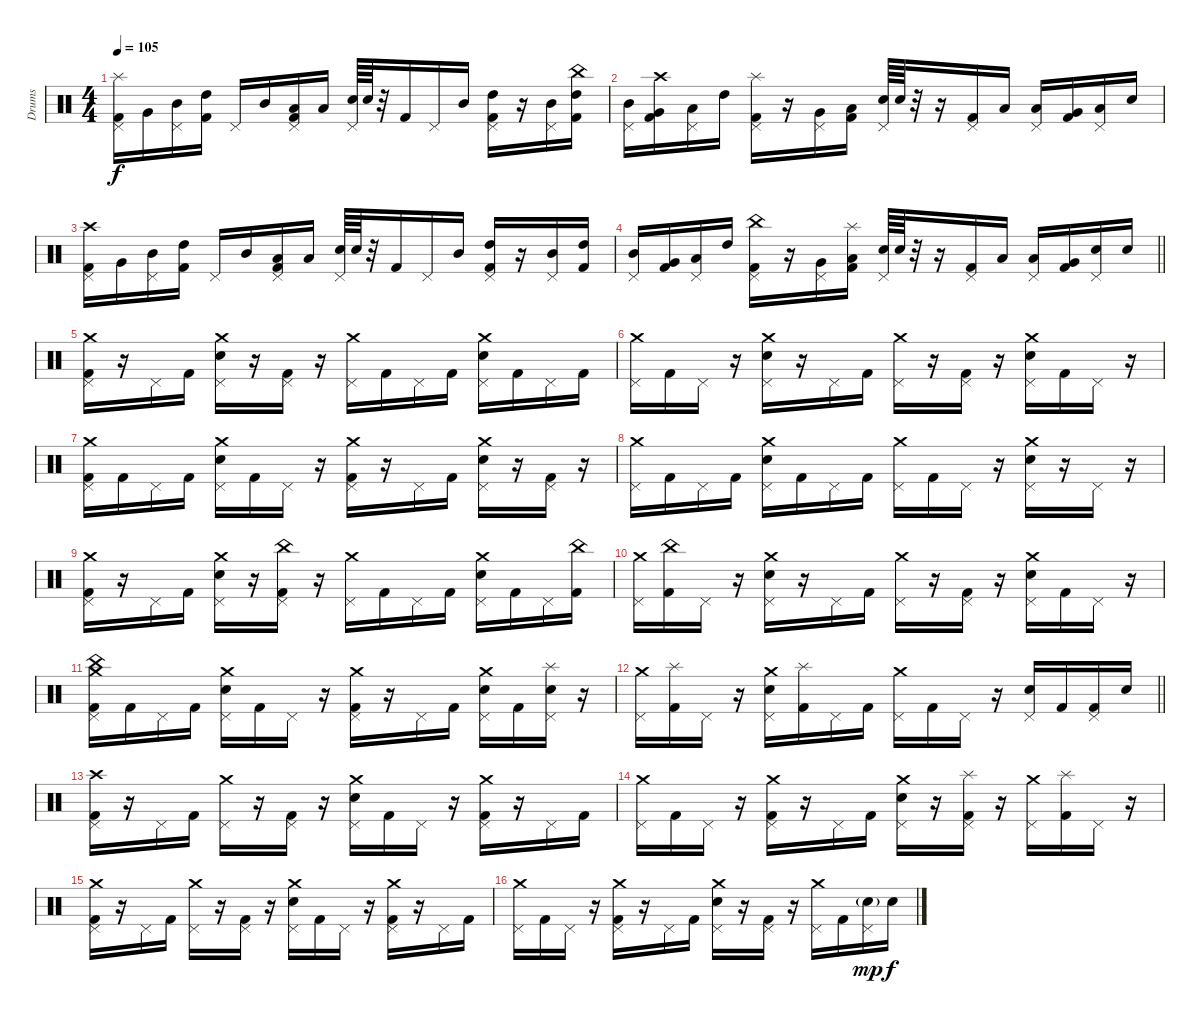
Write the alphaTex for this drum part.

\track ("Drums" "Drums") {instrument percussion}
\staff {score}
\articulation defaults
\ts (4 4)
\tempo 105
\clef neutral
\ks c
("Splash (hit)" "Pedal Hi-Hat (hit)" "Kick (hit) 2").16{dy f} "Very Low Tom (hit)".16 ("Mid Tom (hit)" "Pedal Hi-Hat (hit)").16 ("High Tom (hit)" "Kick (hit) 2").16 "Pedal Hi-Hat (hit)".16 "Mid Tom (hit)".16 ("Pedal Hi-Hat (hit)" "Low Tom (hit)" "Kick (hit) 2").16 "Low Floor Tom (hit)".16 ("Pedal Hi-Hat (hit)" "Electric Snare (hit)").64 "Electric Snare (hit)".64 r.32 "Kick (hit) 2".16 "Pedal Hi-Hat (hit)".16 "Mid Tom (hit)".16 ("High Tom (hit)" "Pedal Hi-Hat (hit)" "Kick (hit) 2").16 r.16 ("Mid Tom (hit)" "Pedal Hi-Hat (hit)").16 ("China (hit)" "High Tom (hit)" "Kick (hit) 2").16 |
("Mid Tom (hit)" "Pedal Hi-Hat (hit)").16 ("Crash high (hit)" "Very Low Tom (hit)" "Kick (hit) 2").16 ("Pedal Hi-Hat (hit)" "Low Tom (hit)").16 "High Tom (hit)".16 ("Splash (hit)" "Pedal Hi-Hat (hit)" "Kick (hit) 2").16 r.16 ("Pedal Hi-Hat (hit)" "Very Low Tom (hit)").16 ("Low Tom (hit)" "Kick (hit) 2").16 ("Pedal Hi-Hat (hit)" "Electric Snare (hit)").64 "Electric Snare (hit)".64 r.32 r.16 ("Pedal Hi-Hat (hit)" "Kick (hit) 2").16 "Low Tom (hit)".16 ("Pedal Hi-Hat (hit)" "Low Floor Tom (hit)").16 ("Very Low Tom (hit)" "Kick (hit) 2").16 ("Pedal Hi-Hat (hit)" "Low Tom (hit)").16 "Electric Snare (hit)".16 |
("Crash high (hit)" "Pedal Hi-Hat (hit)" "Kick (hit) 2").16 "Very Low Tom (hit)".16 ("Mid Tom (hit)" "Pedal Hi-Hat (hit)").16 ("High Tom (hit)" "Kick (hit) 2").16 "Pedal Hi-Hat (hit)".16 "Mid Tom (hit)".16 ("Pedal Hi-Hat (hit)" "Low Tom (hit)" "Kick (hit) 2").16 "Low Floor Tom (hit)".16 ("Pedal Hi-Hat (hit)" "Electric Snare (hit)").64 "Electric Snare (hit)".64 r.32 "Kick (hit) 2".16 "Pedal Hi-Hat (hit)".16 "Mid Tom (hit)".16 ("High Tom (hit)" "Pedal Hi-Hat (hit)" "Kick (hit) 2").16 r.16 ("Mid Tom (hit)" "Pedal Hi-Hat (hit)").16 ("High Tom (hit)" "Kick (hit) 2").16 |
\barLineRight lightlight
("Mid Tom (hit)" "Pedal Hi-Hat (hit)").16 ("Very Low Tom (hit)" "Kick (hit) 2").16 ("Pedal Hi-Hat (hit)" "Low Tom (hit)").16 "High Tom (hit)".16 ("China (hit)" "Pedal Hi-Hat (hit)" "Kick (hit) 2").16 r.16 ("Pedal Hi-Hat (hit)" "Very Low Tom (hit)").16 ("Splash (hit)" "Low Tom (hit)" "Kick (hit) 2").16 ("Pedal Hi-Hat (hit)" "Electric Snare (hit)").64 "Electric Snare (hit)".64 r.32 r.16 ("Pedal Hi-Hat (hit)" "Kick (hit) 2").16 "Low Tom (hit)".16 ("Pedal Hi-Hat (hit)" "Low Floor Tom (hit)").16 ("Very Low Tom (hit)" "Kick (hit) 2").16 ("Pedal Hi-Hat (hit)" "Electric Snare (hit)").16 "Electric Snare (hit)".16 |
\section ("" "")
("Crash medium (hit)" "Pedal Hi-Hat (hit)" "Kick (hit) 2").16 r.16 "Pedal Hi-Hat (hit)".16 "Kick (hit) 2".16 ("Crash medium (hit)" "Pedal Hi-Hat (hit)" "Electric Snare (hit)").16 r.16 ("Pedal Hi-Hat (hit)" "Kick (hit) 2").16 r.16 ("Crash medium (hit)" "Pedal Hi-Hat (hit)").16 "Kick (hit) 2".16 "Pedal Hi-Hat (hit)".16 "Kick (hit) 2".16 ("Crash medium (hit)" "Pedal Hi-Hat (hit)" "Electric Snare (hit)").16 "Kick (hit) 2".16 "Pedal Hi-Hat (hit)".16 "Kick (hit) 2".16 |
("Crash medium (hit)" "Pedal Hi-Hat (hit)").16 "Kick (hit) 2".16 "Pedal Hi-Hat (hit)".16 r.16 ("Crash medium (hit)" "Pedal Hi-Hat (hit)" "Electric Snare (hit)").16 r.16 "Pedal Hi-Hat (hit)".16 "Kick (hit) 2".16 ("Crash medium (hit)" "Pedal Hi-Hat (hit)").16 r.16 ("Pedal Hi-Hat (hit)" "Kick (hit) 2").16 r.16 ("Crash medium (hit)" "Pedal Hi-Hat (hit)" "Electric Snare (hit)").16 "Kick (hit) 2".16 "Pedal Hi-Hat (hit)".16 r.16 |
("Crash medium (hit)" "Pedal Hi-Hat (hit)" "Kick (hit) 2").16 "Kick (hit) 2".16 "Pedal Hi-Hat (hit)".16 "Kick (hit) 2".16 ("Crash medium (hit)" "Pedal Hi-Hat (hit)" "Electric Snare (hit)").16 "Kick (hit) 2".16 "Pedal Hi-Hat (hit)".16 r.16 ("Crash medium (hit)" "Pedal Hi-Hat (hit)" "Kick (hit) 2").16 r.16 "Pedal Hi-Hat (hit)".16 "Kick (hit) 2".16 ("Crash medium (hit)" "Pedal Hi-Hat (hit)" "Electric Snare (hit)").16 r.16 ("Pedal Hi-Hat (hit)" "Kick (hit) 2").16 r.16 |
("Crash medium (hit)" "Pedal Hi-Hat (hit)").16 "Kick (hit) 2".16 "Pedal Hi-Hat (hit)".16 "Kick (hit) 2".16 ("Crash medium (hit)" "Pedal Hi-Hat (hit)" "Electric Snare (hit)").16 "Kick (hit) 2".16 "Pedal Hi-Hat (hit)".16 "Kick (hit) 2".16 ("Crash medium (hit)" "Pedal Hi-Hat (hit)").16 "Kick (hit) 2".16 "Pedal Hi-Hat (hit)".16 r.16 ("Crash medium (hit)" "Pedal Hi-Hat (hit)" "Electric Snare (hit)").16 r.16 "Pedal Hi-Hat (hit)".16 r.16 |
("Crash medium (hit)" "Pedal Hi-Hat (hit)" "Kick (hit) 2").16 r.16 "Pedal Hi-Hat (hit)".16 "Kick (hit) 2".16 ("Crash medium (hit)" "Pedal Hi-Hat (hit)" "Electric Snare (hit)").16 r.16 ("China (hit)" "Pedal Hi-Hat (hit)" "Kick (hit) 2").16 r.16 ("Crash medium (hit)" "Pedal Hi-Hat (hit)").16 "Kick (hit) 2".16 "Pedal Hi-Hat (hit)".16 "Kick (hit) 2".16 ("Crash medium (hit)" "Pedal Hi-Hat (hit)" "Electric Snare (hit)").16 "Kick (hit) 2".16 "Pedal Hi-Hat (hit)".16 ("China (hit)" "Kick (hit) 2").16 |
("Crash medium (hit)" "Pedal Hi-Hat (hit)").16 ("China (hit)" "Kick (hit) 2").16 "Pedal Hi-Hat (hit)".16 r.16 ("Crash medium (hit)" "Pedal Hi-Hat (hit)" "Electric Snare (hit)").16 r.16 "Pedal Hi-Hat (hit)".16 "Kick (hit) 2".16 ("Crash medium (hit)" "Pedal Hi-Hat (hit)").16 r.16 ("Pedal Hi-Hat (hit)" "Kick (hit) 2").16 r.16 ("Crash medium (hit)" "Pedal Hi-Hat (hit)" "Electric Snare (hit)").16 "Kick (hit) 2".16 "Pedal Hi-Hat (hit)".16 r.16 |
("China (hit)" "Crash medium (hit)" "Pedal Hi-Hat (hit)" "Kick (hit) 2").16 "Kick (hit) 2".16 "Pedal Hi-Hat (hit)".16 "Kick (hit) 2".16 ("Crash medium (hit)" "Pedal Hi-Hat (hit)" "Electric Snare (hit)").16 "Kick (hit) 2".16 "Pedal Hi-Hat (hit)".16 r.16 ("Crash medium (hit)" "Pedal Hi-Hat (hit)" "Kick (hit) 2").16 r.16 "Pedal Hi-Hat (hit)".16 "Kick (hit) 2".16 ("Crash medium (hit)" "Pedal Hi-Hat (hit)" "Electric Snare (hit)").16 "Kick (hit) 2".16 ("Splash (hit)" "Pedal Hi-Hat (hit)" "Electric Snare (hit)").16 r.16 |
\barLineRight lightlight
("Crash medium (hit)" "Pedal Hi-Hat (hit)").16 ("Splash (hit)" "Kick (hit) 2").16 "Pedal Hi-Hat (hit)".16 r.16 ("Crash medium (hit)" "Pedal Hi-Hat (hit)" "Electric Snare (hit)").16 ("Splash (hit)" "Kick (hit) 2").16 "Pedal Hi-Hat (hit)".16 "Kick (hit) 2".16 ("Crash medium (hit)" "Pedal Hi-Hat (hit)").16 "Kick (hit) 2".16 "Pedal Hi-Hat (hit)".16 r.16 ("Pedal Hi-Hat (hit)" "Electric Snare (hit)").16 "Kick (hit) 2".16 ("Pedal Hi-Hat (hit)" "Kick (hit) 2").16 "Electric Snare (hit)".16 |
\section ("" "")
("Crash high (hit)" "Pedal Hi-Hat (hit)" "Kick (hit) 2").16 r.16 "Pedal Hi-Hat (hit)".16 "Kick (hit) 2".16 ("Crash medium (hit)" "Pedal Hi-Hat (hit)").16 r.16 ("Pedal Hi-Hat (hit)" "Kick (hit) 2").16 r.16 ("Crash medium (hit)" "Pedal Hi-Hat (hit)" "Electric Snare (hit)").16 "Kick (hit) 2".16 "Pedal Hi-Hat (hit)".16 r.16 ("Crash medium (hit)" "Pedal Hi-Hat (hit)" "Kick (hit) 2").16 r.16 "Pedal Hi-Hat (hit)".16 "Kick (hit) 2".16 |
("Crash medium (hit)" "Pedal Hi-Hat (hit)").16 "Kick (hit) 2".16 "Pedal Hi-Hat (hit)".16 r.16 ("Crash medium (hit)" "Pedal Hi-Hat (hit)" "Kick (hit) 2").16 r.16 "Pedal Hi-Hat (hit)".16 "Kick (hit) 2".16 ("Crash medium (hit)" "Pedal Hi-Hat (hit)" "Electric Snare (hit)").16 r.16 ("Splash (hit)" "Pedal Hi-Hat (hit)" "Kick (hit) 2").16 r.16 ("Crash medium (hit)" "Pedal Hi-Hat (hit)").16 ("Splash (hit)" "Kick (hit) 2").16 "Pedal Hi-Hat (hit)".16 r.16 |
("Crash medium (hit)" "Pedal Hi-Hat (hit)" "Kick (hit) 2").16 r.16 "Pedal Hi-Hat (hit)".16 "Kick (hit) 2".16 ("Crash medium (hit)" "Pedal Hi-Hat (hit)").16 r.16 ("Pedal Hi-Hat (hit)" "Kick (hit) 2").16 r.16 ("Crash medium (hit)" "Pedal Hi-Hat (hit)" "Electric Snare (hit)").16 "Kick (hit) 2".16 "Pedal Hi-Hat (hit)".16 r.16 ("Crash medium (hit)" "Pedal Hi-Hat (hit)" "Kick (hit) 2").16 r.16 "Pedal Hi-Hat (hit)".16 "Kick (hit) 2".16 |
("Crash medium (hit)" "Pedal Hi-Hat (hit)").16 "Kick (hit) 2".16 "Pedal Hi-Hat (hit)".16 r.16 ("Crash medium (hit)" "Pedal Hi-Hat (hit)" "Kick (hit) 2").16 r.16 "Pedal Hi-Hat (hit)".16 "Kick (hit) 2".16 ("Crash medium (hit)" "Pedal Hi-Hat (hit)" "Electric Snare (hit)").16 r.16 ("Pedal Hi-Hat (hit)" "Kick (hit) 2").16 r.16 ("Crash medium (hit)" "Pedal Hi-Hat (hit)").16 "Kick (hit) 2".16 ("Pedal Hi-Hat (hit)" "Electric Snare (hit)"{g}).16{dy mp} "Electric Snare (hit)".16{dy f}
